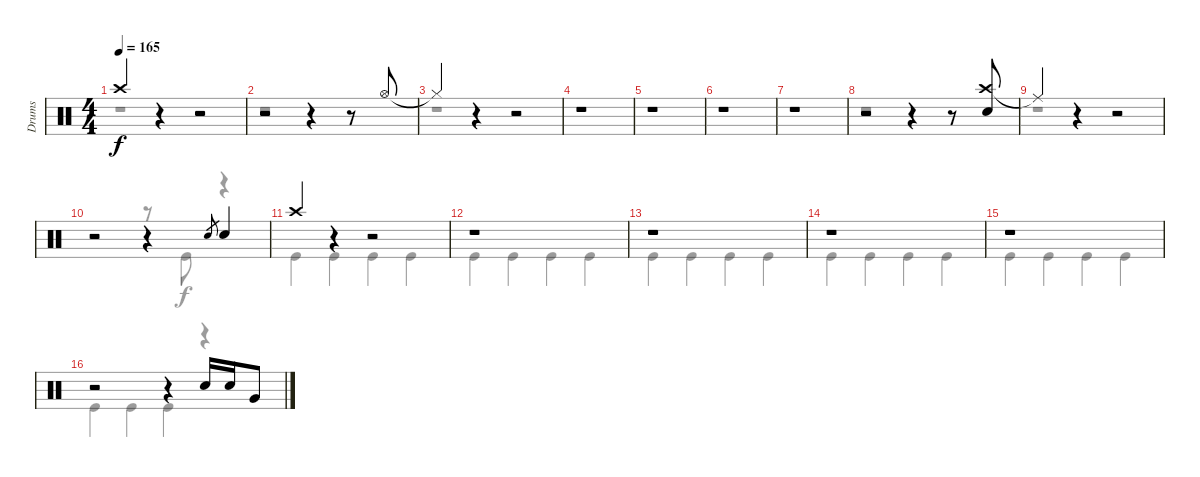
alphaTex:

\track ("Drums" "Drums") {instrument percussion}
\staff {score}
\articulation defaults
\voice
\ts (4 4)
\tempo 165
\clef neutral
\ks c "Crash high (hit)".4{dy f beam Up}
r.4 r.2 |
r.2 r.4 r.8 "Hi-Hat (open)".8{beam Up} |
"Hi-Hat (closed)"{t}.4{beam Up} r.4 r.2 |
r.1 |
r.1 |
r.1 |
r.1 |
r.2 r.4 r.8 ("Crash high (hit)" "Snare (hit) 2").8{beam Up} |
"Ride (middle)"{t}.4{beam Up} r.4 r.2 |
r.2 r.4 "Snare (hit) 2".8{gr} "Snare (hit) 2".4{beam Up} |
"Crash high (hit)".4{beam Up} r.4 r.2 |
r.1 |
r.1 |
r.1 |
r.1 |
r.2 r.4 "Snare (hit) 2".16{beam Up} "Snare (hit) 2".16{beam Up} "Very Low Tom (hit)".8{beam Up}
\voice
\clef neutral
\ottava regular
\simile none
\ks c
r.1{dy f} |
r.1 |
r.1 |
r.1 |
r.1 |
r.1 |
r.1 |
r.1 |
r.1 |
r.2 r.8 "Kick (hit)".8 r.4 |
"Kick (hit)".4 "Kick (hit)".4 "Kick (hit)".4 "Kick (hit)".4 |
"Kick (hit)".4 "Kick (hit)".4 "Kick (hit)".4 "Kick (hit)".4 |
"Kick (hit)".4 "Kick (hit)".4 "Kick (hit)".4 "Kick (hit)".4 |
"Kick (hit)".4 "Kick (hit)".4 "Kick (hit)".4 "Kick (hit)".4 |
"Kick (hit)".4 "Kick (hit)".4 "Kick (hit)".4 "Kick (hit)".4 |
"Kick (hit)".4 "Kick (hit)".4 "Kick (hit)".4 r.4
